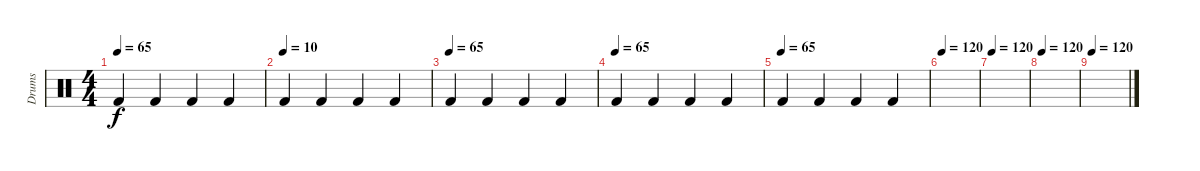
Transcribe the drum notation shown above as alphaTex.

\track ("Drums" "Drums") {instrument percussion}
\staff {score}
\articulation defaults
\ts (4 4)
\tempo 65
\clef neutral
\ks c "Kick (hit) 2".4{dy f} "Kick (hit) 2".4 "Kick (hit) 2".4 "Kick (hit) 2".4
|
\tempo (10)
"Kick (hit) 2".4 "Kick (hit) 2".4 "Kick (hit) 2".4 "Kick (hit) 2".4 |
\tempo (65)
"Kick (hit) 2".4 "Kick (hit) 2".4 "Kick (hit) 2".4 "Kick (hit) 2".4 |
\tempo (65)
"Kick (hit) 2".4 "Kick (hit) 2".4 "Kick (hit) 2".4 "Kick (hit) 2".4 |
\tempo (65)
"Kick (hit) 2".4 "Kick (hit) 2".4 "Kick (hit) 2".4 "Kick (hit) 2".4 |
\tempo 120
|
\tempo 120
|
\tempo 120
|
\tempo 120
